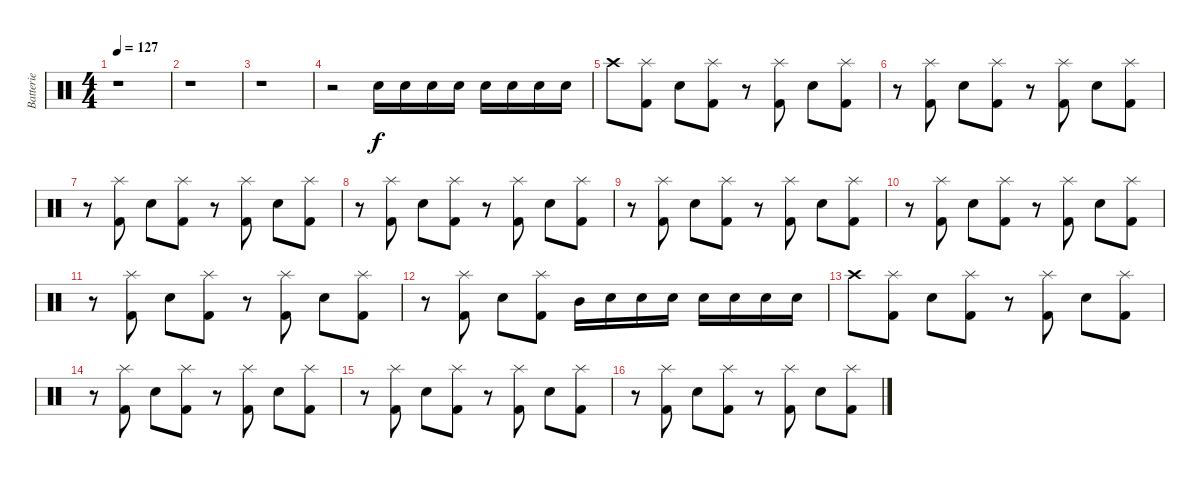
\track ("Batterie" "Batterie") {instrument percussion}
\staff {score}
\articulation defaults
\ts (4 4)
\tempo 127
\clef neutral
\ks c
r.1{dy f} |
r.1 |
r.1 |
r.2 "Snare (hit) 2".16 "Snare (hit) 2".16 "Snare (hit) 2".16 "Snare (hit) 2".16 "Snare (hit) 2".16 "Snare (hit) 2".16 "Snare (hit) 2".16 "Snare (hit) 2".16 |
"Crash high (hit)".8 ("Splash (hit)" "Kick (hit) 2").8 "Snare (hit) 2".8 ("Splash (hit)" "Kick (hit) 2").8 r.8 ("Splash (hit)" "Kick (hit) 2").8 "Snare (hit) 2".8 ("Splash (hit)" "Kick (hit) 2").8 |
r.8 ("Splash (hit)" "Kick (hit) 2").8 "Snare (hit) 2".8 ("Splash (hit)" "Kick (hit) 2").8 r.8 ("Splash (hit)" "Kick (hit) 2").8 "Snare (hit) 2".8 ("Splash (hit)" "Kick (hit) 2").8 |
r.8 ("Splash (hit)" "Kick (hit) 2").8 "Snare (hit) 2".8 ("Splash (hit)" "Kick (hit) 2").8 r.8 ("Splash (hit)" "Kick (hit) 2").8 "Snare (hit) 2".8 ("Splash (hit)" "Kick (hit) 2").8 |
r.8 ("Splash (hit)" "Kick (hit) 2").8 "Snare (hit) 2".8 ("Splash (hit)" "Kick (hit) 2").8 r.8 ("Splash (hit)" "Kick (hit) 2").8 "Snare (hit) 2".8 ("Splash (hit)" "Kick (hit) 2").8 |
r.8 ("Splash (hit)" "Kick (hit) 2").8 "Snare (hit) 2".8 ("Splash (hit)" "Kick (hit) 2").8 r.8 ("Splash (hit)" "Kick (hit) 2").8 "Snare (hit) 2".8 ("Splash (hit)" "Kick (hit) 2").8 |
r.8 ("Splash (hit)" "Kick (hit) 2").8 "Snare (hit) 2".8 ("Splash (hit)" "Kick (hit) 2").8 r.8 ("Splash (hit)" "Kick (hit) 2").8 "Snare (hit) 2".8 ("Splash (hit)" "Kick (hit) 2").8 |
r.8 ("Splash (hit)" "Kick (hit) 2").8 "Snare (hit) 2".8 ("Splash (hit)" "Kick (hit) 2").8 r.8 ("Splash (hit)" "Kick (hit) 2").8 "Snare (hit) 2".8 ("Splash (hit)" "Kick (hit) 2").8 |
r.8 ("Splash (hit)" "Kick (hit) 2").8 "Snare (hit) 2".8 ("Splash (hit)" "Kick (hit) 2").8 "Mid Tom (hit)".16 "Snare (hit) 2".16 "Snare (hit) 2".16 "Snare (hit) 2".16 "Snare (hit) 2".16 "Snare (hit) 2".16 "Snare (hit) 2".16 "Snare (hit) 2".16 |
"Crash high (hit)".8 ("Splash (hit)" "Kick (hit) 2").8 "Snare (hit) 2".8 ("Splash (hit)" "Kick (hit) 2").8 r.8 ("Splash (hit)" "Kick (hit) 2").8 "Snare (hit) 2".8 ("Splash (hit)" "Kick (hit) 2").8 |
r.8 ("Splash (hit)" "Kick (hit) 2").8 "Snare (hit) 2".8 ("Splash (hit)" "Kick (hit) 2").8 r.8 ("Splash (hit)" "Kick (hit) 2").8 "Snare (hit) 2".8 ("Splash (hit)" "Kick (hit) 2").8 |
r.8 ("Splash (hit)" "Kick (hit) 2").8 "Snare (hit) 2".8 ("Splash (hit)" "Kick (hit) 2").8 r.8 ("Splash (hit)" "Kick (hit) 2").8 "Snare (hit) 2".8 ("Splash (hit)" "Kick (hit) 2").8 |
r.8 ("Splash (hit)" "Kick (hit) 2").8 "Snare (hit) 2".8 ("Splash (hit)" "Kick (hit) 2").8 r.8 ("Splash (hit)" "Kick (hit) 2").8 "Snare (hit) 2".8 ("Splash (hit)" "Kick (hit) 2").8
